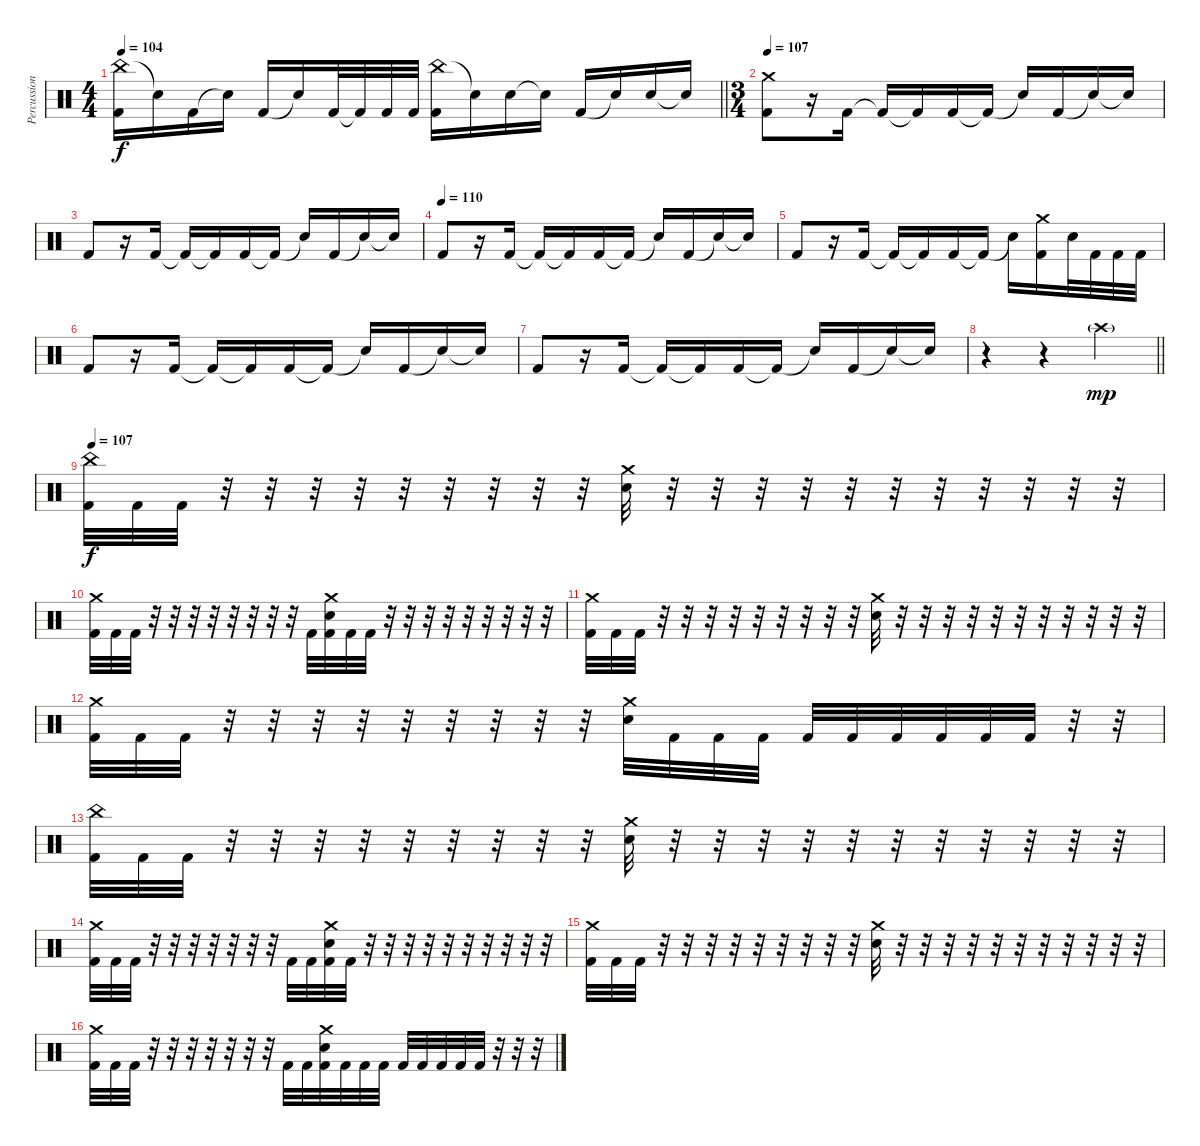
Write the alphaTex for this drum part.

\track ("Percussion" "Percussion") {instrument percussion}
\staff {score}
\articulation defaults
\ts (4 4)
\tempo 104
\clef neutral
\barLineRight lightlight
\ks c
("China (hit)" "Kick (hit) 2").16{dy f} "Snare (hit)"{t}.16 "Kick (hit) 2".16 "Snare (hit)"{t}.16 "Kick (hit) 2".16 "Snare (hit)"{t}.16 "Kick (hit) 2".32 "Kick (hit) 2"{t}.32 "Kick (hit) 2".32 "Kick (hit) 2".32 ("China (hit)" "Kick (hit) 2").16 "Snare (hit)"{t}.16 "Electric Snare (hit)".16 "Snare (hit)"{t}.16 "Kick (hit) 2".16 "Snare (hit)"{t}.16 "Electric Snare (hit)".16 "Snare (hit)"{t}.16 |
\ts (3 4)
\tempo 110
\tempo 107
("Crash medium (hit)" "Kick (hit) 2").8 r.16 "Kick (hit) 2".16 "Kick (hit) 2"{t}.16 "Kick (hit) 2"{t}.16 "Kick (hit) 2".16 "Kick (hit) 2"{t}.16 "Snare (hit)"{t}.16 "Kick (hit) 2".16 "Snare (hit)"{t}.16 "Snare (hit)"{t}.16 |
"Kick (hit) 2".8 r.16 "Kick (hit) 2".16 "Kick (hit) 2"{t}.16 "Kick (hit) 2"{t}.16 "Kick (hit) 2".16 "Kick (hit) 2"{t}.16 "Snare (hit)"{t}.16 "Kick (hit) 2".16 "Snare (hit)"{t}.16 "Snare (hit)"{t}.16 |
\tempo (110)
"Kick (hit) 2".8 r.16 "Kick (hit) 2".16 "Kick (hit) 2"{t}.16 "Kick (hit) 2"{t}.16 "Kick (hit) 2".16 "Kick (hit) 2"{t}.16 "Snare (hit)"{t}.16 "Kick (hit) 2".16 "Snare (hit)"{t}.16 "Snare (hit)"{t}.16 |
"Kick (hit) 2".8 r.16 "Kick (hit) 2".16 "Kick (hit) 2"{t}.16 "Kick (hit) 2"{t}.16 "Kick (hit) 2".16 "Kick (hit) 2"{t}.16 "Snare (hit)"{t}.16 ("Crash medium (hit)" "Kick (hit) 2").16 "Electric Snare (hit)".32 "Kick (hit) 2".32 "Kick (hit) 2".32 "Kick (hit) 2".32 |
"Kick (hit) 2".8 r.16 "Kick (hit) 2".16 "Kick (hit) 2"{t}.16 "Kick (hit) 2"{t}.16 "Kick (hit) 2".16 "Kick (hit) 2"{t}.16 "Snare (hit)"{t}.16 "Kick (hit) 2".16 "Snare (hit)"{t}.16 "Snare (hit)"{t}.16 |
"Kick (hit) 2".8 r.16 "Kick (hit) 2".16 "Kick (hit) 2"{t}.16 "Kick (hit) 2"{t}.16 "Kick (hit) 2".16 "Kick (hit) 2"{t}.16 "Snare (hit)"{t}.16 "Kick (hit) 2".16 "Snare (hit)"{t}.16 "Snare (hit)"{t}.16 |
\barLineRight lightlight
r.4 r.4 "Crash high (hit)"{g}.4{dy mp} |
\tempo 107
("China (hit)" "Kick (hit) 2").32{dy f} "Kick (hit) 2".32 "Kick (hit) 2".32 r.32 r.32 r.32 r.32 r.32 r.32 r.32 r.32 r.32 ("Crash medium (hit)" "Electric Snare (hit)").32 r.32 r.32 r.32 r.32 r.32 r.32 r.32 r.32 r.32 r.32 r.32 |
("Crash medium (hit)" "Kick (hit) 2").32 "Kick (hit) 2".32 "Kick (hit) 2".32 r.32 r.32 r.32 r.32 r.32 r.32 r.32 r.32 "Kick (hit) 2".32 ("Crash medium (hit)" "Electric Snare (hit)" "Kick (hit) 2").32 "Kick (hit) 2".32 "Kick (hit) 2".32 r.32 r.32 r.32 r.32 r.32 r.32 r.32 r.32 r.32 |
("Crash medium (hit)" "Kick (hit) 2").32 "Kick (hit) 2".32 "Kick (hit) 2".32 r.32 r.32 r.32 r.32 r.32 r.32 r.32 r.32 r.32 ("Crash medium (hit)" "Electric Snare (hit)").32 r.32 r.32 r.32 r.32 r.32 r.32 r.32 r.32 r.32 r.32 r.32 |
("Crash medium (hit)" "Kick (hit) 2").32 "Kick (hit) 2".32 "Kick (hit) 2".32 r.32 r.32 r.32 r.32 r.32 r.32 r.32 r.32 r.32 ("Crash medium (hit)" "Electric Snare (hit)").32 "Kick (hit) 2".32 "Kick (hit) 2".32 "Kick (hit) 2".32 "Kick (hit) 2".32 "Kick (hit) 2".32 "Kick (hit) 2".32 "Kick (hit) 2".32 "Kick (hit) 2".32 "Kick (hit) 2".32 r.32 r.32 |
("China (hit)" "Kick (hit) 2").32 "Kick (hit) 2".32 "Kick (hit) 2".32 r.32 r.32 r.32 r.32 r.32 r.32 r.32 r.32 r.32 ("Crash medium (hit)" "Electric Snare (hit)").32 r.32 r.32 r.32 r.32 r.32 r.32 r.32 r.32 r.32 r.32 r.32 |
("Crash medium (hit)" "Kick (hit) 2").32 "Kick (hit) 2".32 "Kick (hit) 2".32 r.32 r.32 r.32 r.32 r.32 r.32 r.32 "Kick (hit) 2".32 "Kick (hit) 2".32 ("Crash medium (hit)" "Electric Snare (hit)" "Kick (hit) 2").32 "Kick (hit) 2".32 r.32 r.32 r.32 r.32 r.32 r.32 r.32 r.32 r.32 r.32 |
("Crash medium (hit)" "Kick (hit) 2").32 "Kick (hit) 2".32 "Kick (hit) 2".32 r.32 r.32 r.32 r.32 r.32 r.32 r.32 r.32 r.32 ("Crash medium (hit)" "Electric Snare (hit)").32 r.32 r.32 r.32 r.32 r.32 r.32 r.32 r.32 r.32 r.32 r.32 |
("Crash medium (hit)" "Kick (hit) 2").32 "Kick (hit) 2".32 "Kick (hit) 2".32 r.32 r.32 r.32 r.32 r.32 r.32 r.32 "Kick (hit) 2".32 "Kick (hit) 2".32 ("Crash medium (hit)" "Electric Snare (hit)" "Kick (hit) 2").32 "Kick (hit) 2".32 "Kick (hit) 2".32 "Kick (hit) 2".32 "Kick (hit) 2".32 "Kick (hit) 2".32 "Kick (hit) 2".32 "Kick (hit) 2".32 "Kick (hit) 2".32 r.32 r.32 r.32
